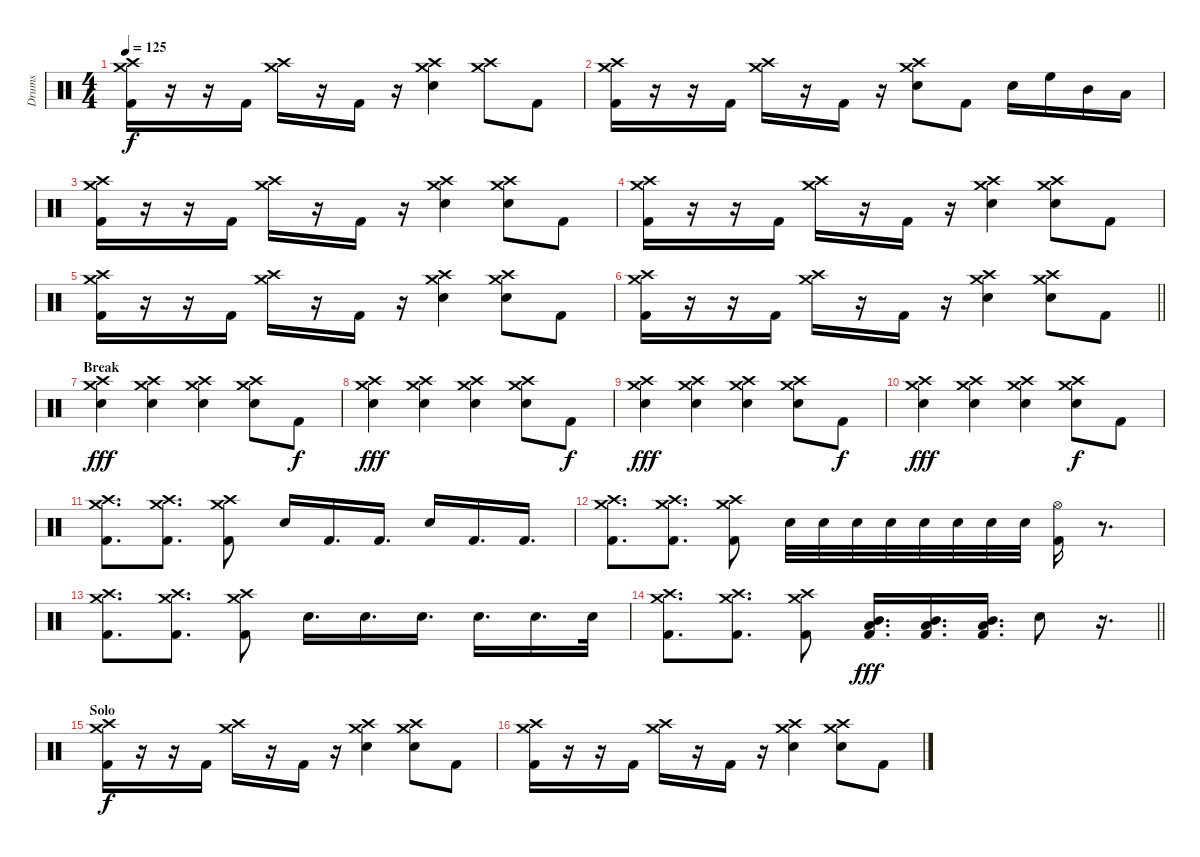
\track ("Drums" "Drums") {instrument percussion}
\staff {score}
\articulation defaults
\ts (4 4)
\tempo 125
\clef neutral
\ks c
("Crash high (hit)" "Crash medium (hit)" "Kick (hit) 2").16{dy f} r.16 r.16 "Kick (hit) 2".16 ("Crash high (hit)" "Crash medium (hit)").16 r.16 "Kick (hit) 2".16 r.16 ("Crash high (hit)" "Crash medium (hit)" "Snare (hit) 2").4 ("Crash high (hit)" "Crash medium (hit)").8 "Kick (hit) 2".8 |
("Crash high (hit)" "Crash medium (hit)" "Kick (hit) 2").16 r.16 r.16 "Kick (hit) 2".16 ("Crash high (hit)" "Crash medium (hit)").16 r.16 "Kick (hit) 2".16 r.16 ("Crash medium (hit)" "Crash high (hit)" "Snare (hit) 2").8 "Kick (hit) 2".8 "Snare (hit) 2".16 "High Floor Tom (hit)".16 "Mid Tom (hit)".16 "Low Tom (hit)".16 |
("Crash high (hit)" "Crash medium (hit)" "Kick (hit) 2").16 r.16 r.16 "Kick (hit) 2".16 ("Crash high (hit)" "Crash medium (hit)").16 r.16 "Kick (hit) 2".16 r.16 ("Crash high (hit)" "Crash medium (hit)" "Snare (hit) 2").4 ("Crash high (hit)" "Crash medium (hit)" "Snare (hit) 2").8 "Kick (hit) 2".8 |
("Crash high (hit)" "Crash medium (hit)" "Kick (hit) 2").16 r.16 r.16 "Kick (hit) 2".16 ("Crash high (hit)" "Crash medium (hit)").16 r.16 "Kick (hit) 2".16 r.16 ("Crash high (hit)" "Crash medium (hit)" "Snare (hit) 2").4 ("Crash high (hit)" "Crash medium (hit)" "Snare (hit) 2").8 "Kick (hit) 2".8 |
("Crash high (hit)" "Crash medium (hit)" "Kick (hit) 2").16 r.16 r.16 "Kick (hit) 2".16 ("Crash high (hit)" "Crash medium (hit)").16 r.16 "Kick (hit) 2".16 r.16 ("Crash high (hit)" "Crash medium (hit)" "Snare (hit) 2").4 ("Crash high (hit)" "Crash medium (hit)" "Snare (hit) 2").8 "Kick (hit) 2".8 |
\barLineRight lightlight
("Crash high (hit)" "Crash medium (hit)" "Kick (hit) 2").16 r.16 r.16 "Kick (hit) 2".16 ("Crash high (hit)" "Crash medium (hit)").16 r.16 "Kick (hit) 2".16 r.16 ("Crash high (hit)" "Crash medium (hit)" "Snare (hit) 2").4 ("Crash high (hit)" "Crash medium (hit)" "Snare (hit) 2").8 "Kick (hit) 2".8 |
\section ("" "Break")
("Crash high (hit)" "Crash medium (hit)" "Snare (hit) 2").4{dy fff} ("Crash medium (hit)" "Crash high (hit)" "Snare (hit) 2").4 ("Crash high (hit)" "Crash medium (hit)" "Snare (hit) 2").4 ("Crash medium (hit)" "Crash high (hit)" "Snare (hit) 2").8 "Kick (hit) 2".8{dy f} |
("Crash high (hit)" "Crash medium (hit)" "Snare (hit) 2").4{dy fff} ("Crash medium (hit)" "Crash high (hit)" "Snare (hit) 2").4 ("Crash high (hit)" "Crash medium (hit)" "Snare (hit) 2").4 ("Crash medium (hit)" "Crash high (hit)" "Snare (hit) 2").8 "Kick (hit) 2".8{dy f} |
("Crash high (hit)" "Crash medium (hit)" "Snare (hit) 2").4{dy fff} ("Crash medium (hit)" "Crash high (hit)" "Snare (hit) 2").4 ("Crash high (hit)" "Crash medium (hit)" "Snare (hit) 2").4 ("Crash medium (hit)" "Crash high (hit)" "Snare (hit) 2").8 "Kick (hit) 2".8{dy f} |
("Crash high (hit)" "Crash medium (hit)" "Snare (hit) 2").4{dy fff} ("Crash medium (hit)" "Crash high (hit)" "Snare (hit) 2").4 ("Crash high (hit)" "Crash medium (hit)" "Snare (hit) 2").4 ("Crash medium (hit)" "Crash high (hit)" "Snare (hit) 2").8{dy f} "Kick (hit) 2".8 |
("Crash medium (hit)" "Crash high (hit)" "Kick (hit) 2").8{d} ("Crash high (hit)" "Crash medium (hit)" "Kick (hit) 2").8{d} ("Crash high (hit)" "Crash medium (hit)" "Kick (hit) 2").8 "Snare (hit) 2".16 "Kick (hit) 2".16{d} "Kick (hit) 2".16{d} "Snare (hit) 2".16 "Kick (hit) 2".16{d} "Kick (hit) 2".16{d} |
("Crash medium (hit)" "Crash high (hit)" "Kick (hit) 2").8{d} ("Crash medium (hit)" "Crash high (hit)" "Kick (hit) 2").8{d} ("Crash medium (hit)" "Crash high (hit)" "Kick (hit) 2").8 "Snare (hit) 2".32 "Snare (hit) 2".32 "Snare (hit) 2".32 "Snare (hit) 2".32 "Snare (hit) 2".32 "Snare (hit) 2".32 "Snare (hit) 2".32 "Snare (hit) 2".32 ("Hi-Hat (open)" "Kick (hit) 2").16 r.8{d} |
("Crash medium (hit)" "Crash high (hit)" "Kick (hit) 2").8{d} ("Crash high (hit)" "Crash medium (hit)" "Kick (hit) 2").8{d} ("Crash high (hit)" "Crash medium (hit)" "Kick (hit) 2").8 "Snare (hit) 2".16{d} "Snare (hit) 2".16{d} "Snare (hit) 2".16{d} "Snare (hit) 2".16{d} "Snare (hit) 2".16{d} "Snare (hit) 2".32 |
\barLineRight lightlight
("Crash medium (hit)" "Crash high (hit)" "Kick (hit) 2").8{d} ("Crash medium (hit)" "Crash high (hit)" "Kick (hit) 2").8{d} ("Crash medium (hit)" "Crash high (hit)" "Kick (hit) 2").8 ("Mid Tom (hit)" "Low Tom (hit)" "Kick (hit) 2").16{d dy fff} ("Mid Tom (hit)" "Low Tom (hit)" "Kick (hit) 2").16{d} ("Mid Tom (hit)" "Low Tom (hit)" "Kick (hit) 2").16{d} "Snare (hit) 2".8 r.16{d} |
\section ("" "Solo ")
("Crash high (hit)" "Crash medium (hit)" "Kick (hit) 2").16{dy f} r.16 r.16 "Kick (hit) 2".16 ("Crash high (hit)" "Crash medium (hit)").16 r.16 "Kick (hit) 2".16 r.16 ("Crash high (hit)" "Crash medium (hit)" "Snare (hit) 2").4 ("Crash high (hit)" "Crash medium (hit)" "Snare (hit) 2").8 "Kick (hit) 2".8 |
("Crash high (hit)" "Crash medium (hit)" "Kick (hit) 2").16 r.16 r.16 "Kick (hit) 2".16 ("Crash high (hit)" "Crash medium (hit)").16 r.16 "Kick (hit) 2".16 r.16 ("Crash high (hit)" "Crash medium (hit)" "Snare (hit) 2").4 ("Crash high (hit)" "Crash medium (hit)" "Snare (hit) 2").8 "Kick (hit) 2".8
